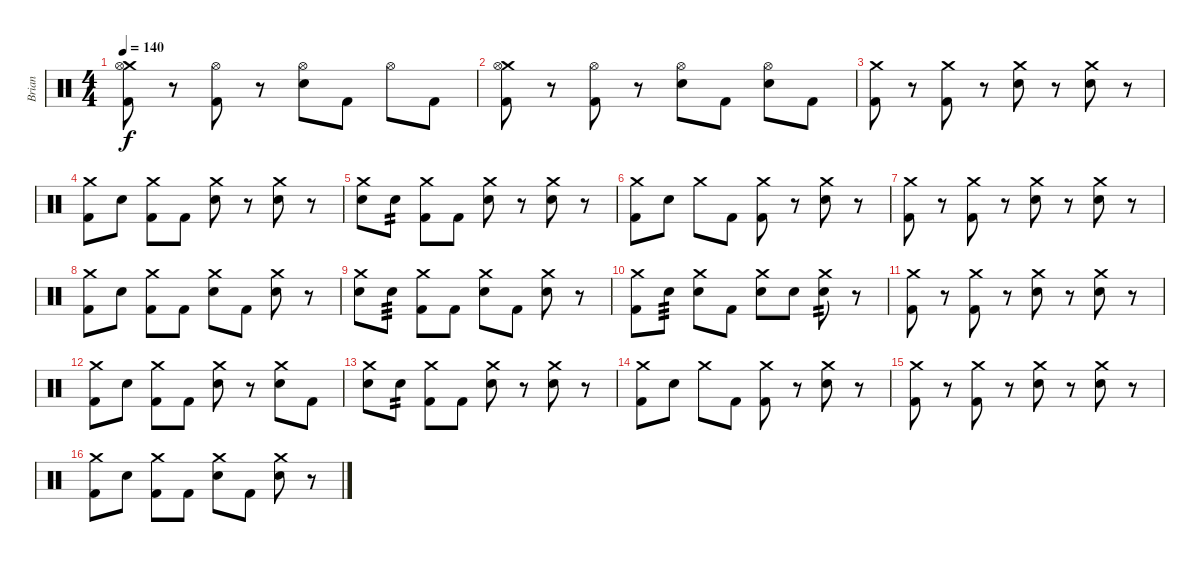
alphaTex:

\track ("Brian" "Brian") {instrument percussion}
\staff {score}
\articulation defaults
\ts (4 4)
\tempo 140
\clef neutral
\ks c
("Crash medium (hit)" "Hi-Hat (open)" "Kick (hit) 2").8{dy f} r.8 ("Hi-Hat (open)" "Kick (hit) 2").8 r.8 ("Hi-Hat (open)" "Electric Snare (hit)").8 "Kick (hit) 2".8 "Hi-Hat (open)".8 "Kick (hit) 2".8 |
("Crash medium (hit)" "Hi-Hat (open)" "Kick (hit) 2").8 r.8 ("Hi-Hat (open)" "Kick (hit) 2").8 r.8 ("Hi-Hat (open)" "Electric Snare (hit)").8 "Kick (hit) 2".8 ("Hi-Hat (open)" "Electric Snare (hit)").8 "Kick (hit) 2".8 |
("Crash medium (hit)" "Kick (hit) 2").8 r.8 ("Crash medium (hit)" "Kick (hit) 2").8 r.8 ("Crash medium (hit)" "Electric Snare (hit)").8 r.8 ("Crash medium (hit)" "Electric Snare (hit)").8 r.8 |
("Crash medium (hit)" "Kick (hit) 2").8 "Electric Snare (hit)".8 ("Crash medium (hit)" "Kick (hit) 2").8 "Kick (hit) 2".8 ("Crash medium (hit)" "Electric Snare (hit)").8 r.8 ("Crash medium (hit)" "Electric Snare (hit)").8 r.8 |
("Crash medium (hit)" "Electric Snare (hit)").8 "Electric Snare (hit)".8{tp 2} ("Crash medium (hit)" "Kick (hit) 2").8 "Kick (hit) 2".8 ("Crash medium (hit)" "Electric Snare (hit)").8 r.8 ("Crash medium (hit)" "Electric Snare (hit)").8 r.8 |
("Crash medium (hit)" "Kick (hit) 2").8 "Electric Snare (hit)".8 "Crash medium (hit)".8 "Kick (hit) 2".8 ("Crash medium (hit)" "Kick (hit) 2").8 r.8 ("Crash medium (hit)" "Electric Snare (hit)").8 r.8 |
("Crash medium (hit)" "Kick (hit) 2").8 r.8 ("Crash medium (hit)" "Kick (hit) 2").8 r.8 ("Crash medium (hit)" "Electric Snare (hit)").8 r.8 ("Crash medium (hit)" "Electric Snare (hit)").8 r.8 |
("Crash medium (hit)" "Kick (hit) 2").8 "Electric Snare (hit)".8 ("Crash medium (hit)" "Kick (hit) 2").8 "Kick (hit) 2".8 ("Crash medium (hit)" "Electric Snare (hit)").8 "Kick (hit) 2".8 ("Crash medium (hit)" "Electric Snare (hit)").8 r.8 |
("Crash medium (hit)" "Electric Snare (hit)").8 "Electric Snare (hit)".8{tp 3} ("Crash medium (hit)" "Kick (hit) 2").8 "Kick (hit) 2".8 ("Crash medium (hit)" "Electric Snare (hit)").8 "Kick (hit) 2".8 ("Crash medium (hit)" "Electric Snare (hit)").8 r.8 |
("Crash medium (hit)" "Kick (hit) 2").8 "Electric Snare (hit)".8{tp 3} ("Crash medium (hit)" "Electric Snare (hit)").8 "Kick (hit) 2".8 ("Crash medium (hit)" "Electric Snare (hit)").8 "Electric Snare (hit)".8 ("Crash medium (hit)" "Electric Snare (hit)").8{tp 2} r.8 |
("Crash medium (hit)" "Kick (hit) 2").8 r.8 ("Crash medium (hit)" "Kick (hit) 2").8 r.8 ("Crash medium (hit)" "Electric Snare (hit)").8 r.8 ("Crash medium (hit)" "Electric Snare (hit)").8 r.8 |
("Crash medium (hit)" "Kick (hit) 2").8 "Electric Snare (hit)".8 ("Crash medium (hit)" "Kick (hit) 2").8 "Kick (hit) 2".8 ("Crash medium (hit)" "Electric Snare (hit)").8 r.8 ("Crash medium (hit)" "Electric Snare (hit)").8 "Kick (hit) 2".8 |
("Crash medium (hit)" "Electric Snare (hit)").8 "Electric Snare (hit)".8{tp 2} ("Crash medium (hit)" "Kick (hit) 2").8 "Kick (hit) 2".8 ("Crash medium (hit)" "Electric Snare (hit)").8 r.8 ("Crash medium (hit)" "Electric Snare (hit)").8 r.8 |
("Crash medium (hit)" "Kick (hit) 2").8 "Electric Snare (hit)".8 "Crash medium (hit)".8 "Kick (hit) 2".8 ("Crash medium (hit)" "Kick (hit) 2").8 r.8 ("Crash medium (hit)" "Electric Snare (hit)").8 r.8 |
("Crash medium (hit)" "Kick (hit) 2").8 r.8 ("Crash medium (hit)" "Kick (hit) 2").8 r.8 ("Crash medium (hit)" "Electric Snare (hit)").8 r.8 ("Crash medium (hit)" "Electric Snare (hit)").8 r.8 |
("Crash medium (hit)" "Kick (hit) 2").8 "Electric Snare (hit)".8 ("Crash medium (hit)" "Kick (hit) 2").8 "Kick (hit) 2".8 ("Crash medium (hit)" "Electric Snare (hit)").8 "Kick (hit) 2".8 ("Crash medium (hit)" "Electric Snare (hit)").8 r.8
